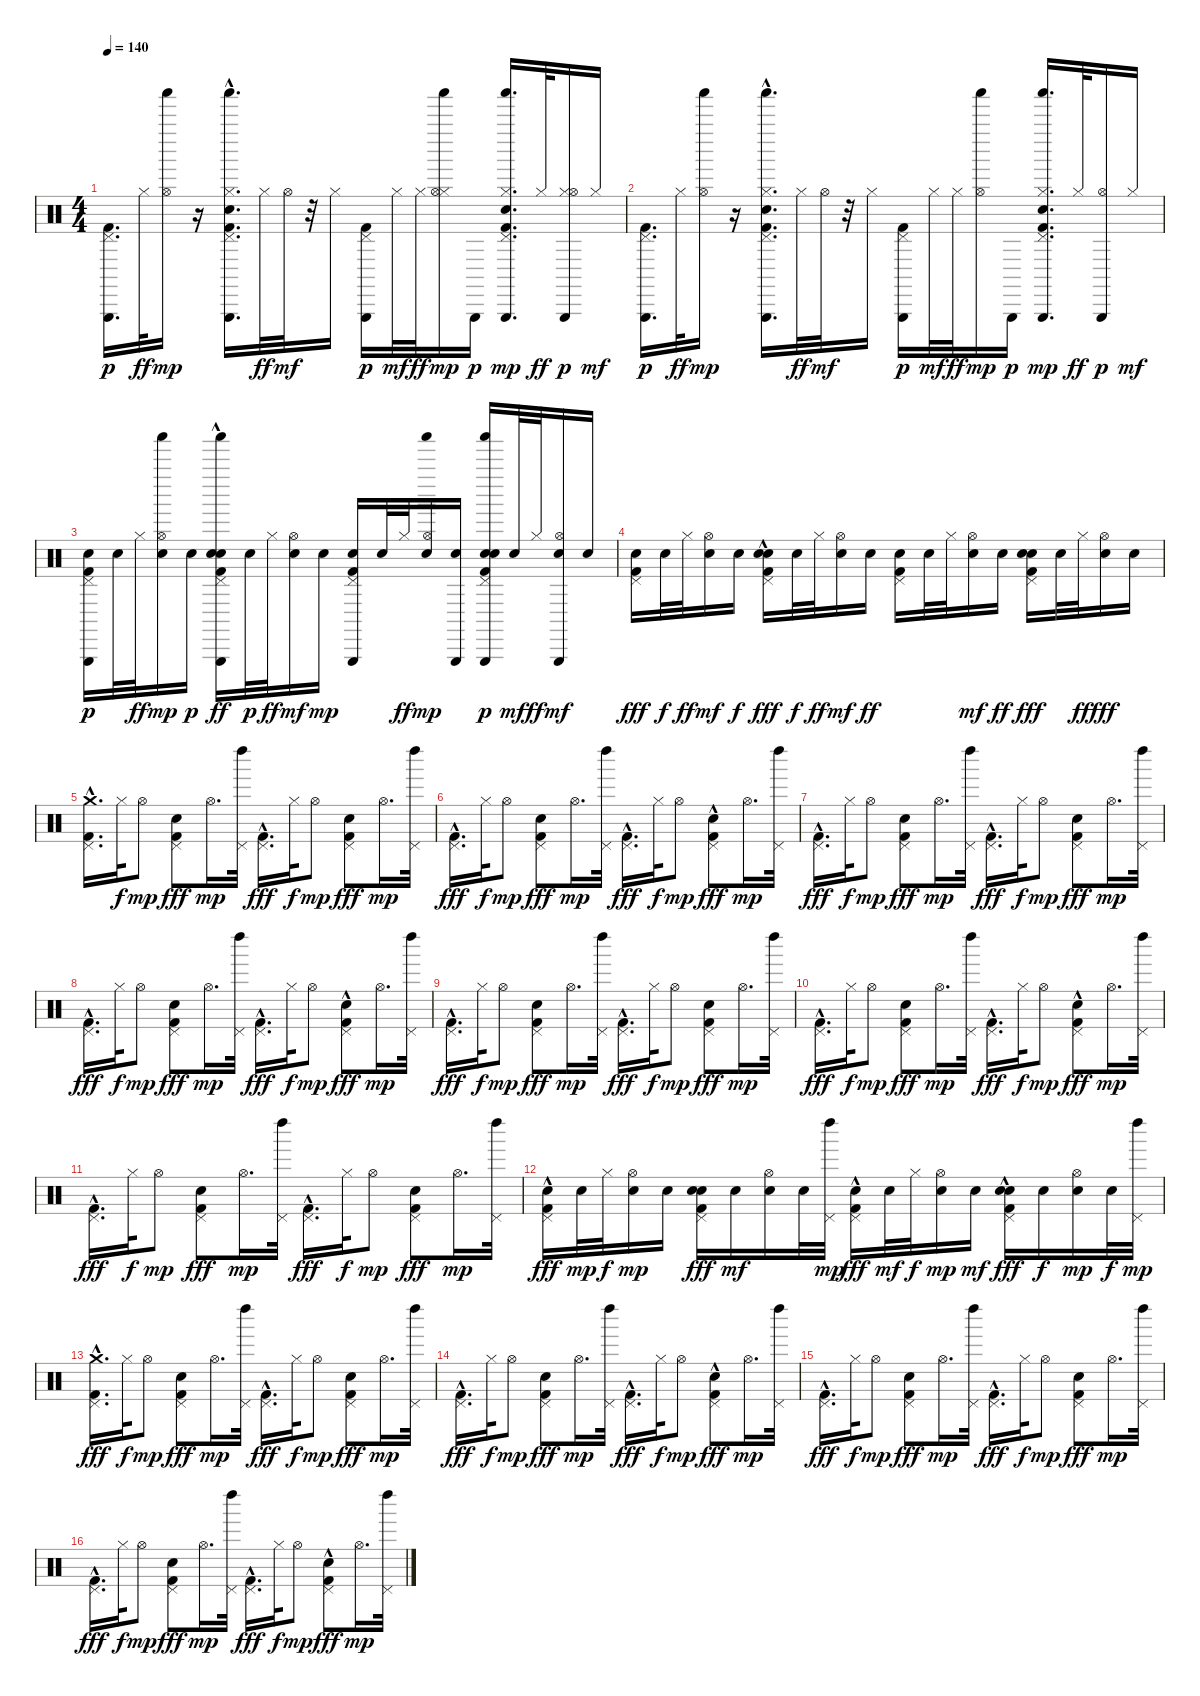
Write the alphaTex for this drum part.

\track "" {instrument percussion}
\staff {score}
\articulation defaults
\ts (4 4)
\tempo 140
\clef neutral
\ks c
("Pedal Hi-Hat (hit)" "Kick (hit) 2" "Triangle (hit)").16{d dy p} "Hi-Hat (closed)".32{dy ff} ("Hi-Hat (open)" "Shaker (hit)").16{dy mp} r.16 ("Pedal Hi-Hat (hit)" "Kick (hit) 2" "Hi-Hat (closed)" "Hand Clap (hit)"{hac} "Triangle (hit)" "Shaker (hit)").16{d} "Hi-Hat (closed)".32{dy ff} "Hi-Hat (open)".32{dy mf} r.32 "Hi-Hat (closed)".16 ("Pedal Hi-Hat (hit)" "Kick (hit) 2" "Triangle (hit)").16{dy p} "Hi-Hat (closed)".32{dy mf} "Hi-Hat (closed)".32{dy ff} ("Hi-Hat (closed)" "Hi-Hat (open)" "Shaker (hit)").16{dy mp} "Triangle (hit)".16{dy p} ("Pedal Hi-Hat (hit)" "Hand Clap (hit)" "Hi-Hat (closed)" "Kick (hit) 2" "Triangle (hit)" "Shaker (hit)").16{d dy mp} "Hi-Hat (closed)".32{dy ff} ("Hi-Hat (closed)" "Hi-Hat (open)" "Triangle (hit)").16{dy p} "Hi-Hat (closed)".16{dy mf} |
("Pedal Hi-Hat (hit)" "Kick (hit) 2" "Triangle (hit)").16{d dy p} "Hi-Hat (closed)".32{dy ff} ("Hi-Hat (open)" "Shaker (hit)").16{dy mp} r.16 ("Pedal Hi-Hat (hit)" "Hi-Hat (closed)" "Hand Clap (hit)"{hac} "Kick (hit) 2" "Triangle (hit)" "Shaker (hit)").16{d} "Hi-Hat (closed)".32{dy ff} "Hi-Hat (open)".32{dy mf} r.32 "Hi-Hat (closed)".16 ("Pedal Hi-Hat (hit)" "Kick (hit) 2" "Triangle (hit)").16{dy p} "Hi-Hat (closed)".32{dy mf} "Hi-Hat (closed)".32{dy ff} ("Hi-Hat (open)" "Shaker (hit)").16{dy mp} "Triangle (hit)".16{dy p} ("Hand Clap (hit)" "Pedal Hi-Hat (hit)" "Hi-Hat (closed)" "Kick (hit) 2" "Triangle (hit)" "Shaker (hit)").16{d dy mp} "Hi-Hat (closed)".32{dy ff} ("Hi-Hat (open)" "Triangle (hit)").16{dy p} "Hi-Hat (closed)".16{dy mf} |
("Triangle (hit)" "Kick (hit) 2" "Pedal Hi-Hat (hit)" "Snare (hit) 2").16{dy p} "Snare (hit) 2".32 "Hi-Hat (closed)".32{dy ff} ("Snare (hit) 2" "Hi-Hat (open)" "Shaker (hit)").16{dy mp} "Snare (hit) 2".16{dy p} ("Hand Clap (hit)"{hac} "Kick (hit) 2" "Shaker (hit)" "Triangle (hit)" "Snare (hit) 2" "Pedal Hi-Hat (hit)").16{dy ff} "Snare (hit) 2".32{dy p} "Hi-Hat (closed)".32{dy ff} ("Snare (hit) 2" "Hi-Hat (open)").16{dy mf} "Snare (hit) 2".16{dy mp} ("Triangle (hit)" "Kick (hit) 2" "Pedal Hi-Hat (hit)" "Snare (hit) 2").16 "Snare (hit) 2".32 "Hi-Hat (closed)".32{dy ff} ("Snare (hit) 2" "Hi-Hat (open)" "Shaker (hit)").16{dy mp} ("Triangle (hit)" "Snare (hit) 2").16 ("Hand Clap (hit)" "Kick (hit) 2" "Snare (hit) 2" "Shaker (hit)" "Pedal Hi-Hat (hit)" "Triangle (hit)").16{dy p} "Snare (hit) 2".32{dy mf} "Hi-Hat (closed)".32{dy ff} ("Snare (hit) 2" "Triangle (hit)" "Hi-Hat (open)").16{dy mf} "Snare (hit) 2".16 |
("Snare (hit) 2" "Pedal Hi-Hat (hit)" "Kick (hit) 2").16{dy fff} "Snare (hit) 2".32{dy f} "Hi-Hat (closed)".32{dy ff} ("Hi-Hat (open)" "Snare (hit) 2").16{dy mf} "Snare (hit) 2".16{dy f} ("Pedal Hi-Hat (hit)" "Hand Clap (hit)"{hac} "Kick (hit) 2" "Snare (hit) 2").16{dy fff} "Snare (hit) 2".32{dy f} "Hi-Hat (closed)".32{dy ff} ("Snare (hit) 2" "Hi-Hat (open)").16{dy mf} "Snare (hit) 2".16{dy ff} ("Pedal Hi-Hat (hit)" "Kick (hit) 2" "Snare (hit) 2").16 "Snare (hit) 2".32 "Hi-Hat (closed)".32 ("Snare (hit) 2" "Hi-Hat (open)").16{dy mf} "Snare (hit) 2".16{dy ff} ("Hand Clap (hit)" "Pedal Hi-Hat (hit)" "Snare (hit) 2" "Kick (hit) 2").16{dy fff} "Snare (hit) 2".32 "Hi-Hat (closed)".32{dy ff} ("Hi-Hat (open)" "Snare (hit) 2").16{dy fff} "Snare (hit) 2".16 |
("Crash medium (hit)" "Pedal Hi-Hat (hit)"{hac} "Kick (hit) 2").16{d} "Hi-Hat (closed)".32{dy f} "Hi-Hat (open)".8{dy mp} ("Pedal Hi-Hat (hit)" "Hand Clap (hit)" "Kick (hit) 2").8{dy fff} "Hi-Hat (open)".16{d dy mp} ("Left Maraca (hit)" "Pedal Hi-Hat (hit)").32 ("Kick (hit) 2" "Pedal Hi-Hat (hit)"{hac}).16{d dy fff} "Hi-Hat (closed)".32{dy f} "Hi-Hat (open)".8{dy mp} ("Pedal Hi-Hat (hit)" "Hand Clap (hit)" "Kick (hit) 2").8{dy fff} "Hi-Hat (open)".16{d dy mp} ("Pedal Hi-Hat (hit)" "Left Maraca (hit)").32 |
("Kick (hit) 2" "Pedal Hi-Hat (hit)"{hac}).16{d dy fff} "Hi-Hat (closed)".32{dy f} "Hi-Hat (open)".8{dy mp} ("Pedal Hi-Hat (hit)" "Hand Clap (hit)" "Kick (hit) 2").8{dy fff} "Hi-Hat (open)".16{d dy mp} ("Left Maraca (hit)" "Pedal Hi-Hat (hit)").32 ("Pedal Hi-Hat (hit)"{hac} "Kick (hit) 2").16{d dy fff} "Hi-Hat (closed)".32{dy f} "Hi-Hat (open)".8{dy mp} ("Pedal Hi-Hat (hit)" "Hand Clap (hit)"{hac} "Kick (hit) 2").8{dy fff} "Hi-Hat (open)".16{d dy mp} ("Left Maraca (hit)" "Pedal Hi-Hat (hit)").32 |
("Kick (hit) 2" "Pedal Hi-Hat (hit)"{hac}).16{d dy fff} "Hi-Hat (closed)".32{dy f} "Hi-Hat (open)".8{dy mp} ("Pedal Hi-Hat (hit)" "Hand Clap (hit)" "Kick (hit) 2").8{dy fff} "Hi-Hat (open)".16{d dy mp} ("Pedal Hi-Hat (hit)" "Left Maraca (hit)").32 ("Kick (hit) 2" "Pedal Hi-Hat (hit)"{hac}).16{d dy fff} "Hi-Hat (closed)".32{dy f} "Hi-Hat (open)".8{dy mp} ("Pedal Hi-Hat (hit)" "Hand Clap (hit)" "Kick (hit) 2").8{dy fff} "Hi-Hat (open)".16{d dy mp} ("Pedal Hi-Hat (hit)" "Left Maraca (hit)").32 |
("Pedal Hi-Hat (hit)"{hac} "Kick (hit) 2").16{d dy fff} "Hi-Hat (closed)".32{dy f} "Hi-Hat (open)".8{dy mp} ("Pedal Hi-Hat (hit)" "Hand Clap (hit)" "Kick (hit) 2").8{dy fff} "Hi-Hat (open)".16{d dy mp} ("Left Maraca (hit)" "Pedal Hi-Hat (hit)").32 ("Pedal Hi-Hat (hit)"{hac} "Kick (hit) 2").16{d dy fff} "Hi-Hat (closed)".32{dy f} "Hi-Hat (open)".8{dy mp} ("Pedal Hi-Hat (hit)" "Kick (hit) 2" "Hand Clap (hit)"{hac}).8{dy fff} "Hi-Hat (open)".16{d dy mp} ("Pedal Hi-Hat (hit)" "Left Maraca (hit)").32 |
("Pedal Hi-Hat (hit)"{hac} "Kick (hit) 2").16{d dy fff} "Hi-Hat (closed)".32{dy f} "Hi-Hat (open)".8{dy mp} ("Kick (hit) 2" "Hand Clap (hit)" "Pedal Hi-Hat (hit)").8{dy fff} "Hi-Hat (open)".16{d dy mp} ("Pedal Hi-Hat (hit)" "Left Maraca (hit)").32 ("Pedal Hi-Hat (hit)"{hac} "Kick (hit) 2").16{d dy fff} "Hi-Hat (closed)".32{dy f} "Hi-Hat (open)".8{dy mp} ("Hand Clap (hit)" "Pedal Hi-Hat (hit)" "Kick (hit) 2").8{dy fff} "Hi-Hat (open)".16{d dy mp} ("Left Maraca (hit)" "Pedal Hi-Hat (hit)").32 |
("Pedal Hi-Hat (hit)"{hac} "Kick (hit) 2").16{d dy fff} "Hi-Hat (closed)".32{dy f} "Hi-Hat (open)".8{dy mp} ("Pedal Hi-Hat (hit)" "Kick (hit) 2" "Hand Clap (hit)").8{dy fff} "Hi-Hat (open)".16{d dy mp} ("Left Maraca (hit)" "Pedal Hi-Hat (hit)").32 ("Pedal Hi-Hat (hit)"{hac} "Kick (hit) 2").16{d dy fff} "Hi-Hat (closed)".32{dy f} "Hi-Hat (open)".8{dy mp} ("Kick (hit) 2" "Pedal Hi-Hat (hit)" "Hand Clap (hit)"{hac}).8{dy fff} "Hi-Hat (open)".16{d dy mp} ("Left Maraca (hit)" "Pedal Hi-Hat (hit)").32 |
("Pedal Hi-Hat (hit)"{hac} "Kick (hit) 2").16{d dy fff} "Hi-Hat (closed)".32{dy f} "Hi-Hat (open)".8{dy mp} ("Kick (hit) 2" "Hand Clap (hit)" "Pedal Hi-Hat (hit)").8{dy fff} "Hi-Hat (open)".16{d dy mp} ("Left Maraca (hit)" "Pedal Hi-Hat (hit)").32 ("Pedal Hi-Hat (hit)"{hac} "Kick (hit) 2").16{d dy fff} "Hi-Hat (closed)".32{dy f} "Hi-Hat (open)".8{dy mp} ("Kick (hit) 2" "Pedal Hi-Hat (hit)" "Hand Clap (hit)").8{dy fff} "Hi-Hat (open)".16{d dy mp} ("Left Maraca (hit)" "Pedal Hi-Hat (hit)").32 |
("Electric Snare (hit)" "Pedal Hi-Hat (hit)"{hac} "Kick (hit) 2").16{dy fff} "Electric Snare (hit)".32{dy mp} "Hi-Hat (closed)".32{dy f} ("Hi-Hat (open)" "Electric Snare (hit)").16{dy mp} "Electric Snare (hit)".16 ("Electric Snare (hit)" "Pedal Hi-Hat (hit)" "Hand Clap (hit)" "Kick (hit) 2").16{dy fff} "Electric Snare (hit)".16{dy mf} ("Hi-Hat (open)" "Electric Snare (hit)").16 "Electric Snare (hit)".32 ("Left Maraca (hit)" "Pedal Hi-Hat (hit)").32{dy mp} ("Electric Snare (hit)" "Pedal Hi-Hat (hit)"{hac} "Kick (hit) 2").16{dy fff} "Electric Snare (hit)".32{dy mf} "Hi-Hat (closed)".32{dy f} ("Electric Snare (hit)" "Hi-Hat (open)").16{dy mp} "Electric Snare (hit)".16{dy mf} ("Electric Snare (hit)" "Pedal Hi-Hat (hit)" "Hand Clap (hit)"{hac} "Kick (hit) 2").16{dy fff} "Electric Snare (hit)".16{dy f} ("Electric Snare (hit)" "Hi-Hat (open)").16{dy mp} "Electric Snare (hit)".32{dy f} ("Left Maraca (hit)" "Pedal Hi-Hat (hit)").32{dy mp} |
("Pedal Hi-Hat (hit)"{hac} "Kick (hit) 2" "Crash medium (hit)").16{d dy fff} "Hi-Hat (closed)".32{dy f} "Hi-Hat (open)".8{dy mp} ("Kick (hit) 2" "Pedal Hi-Hat (hit)" "Hand Clap (hit)").8{dy fff} "Hi-Hat (open)".16{d dy mp} ("Pedal Hi-Hat (hit)" "Left Maraca (hit)").32 ("Pedal Hi-Hat (hit)"{hac} "Kick (hit) 2").16{d dy fff} "Hi-Hat (closed)".32{dy f} "Hi-Hat (open)".8{dy mp} ("Pedal Hi-Hat (hit)" "Hand Clap (hit)" "Kick (hit) 2").8{dy fff} "Hi-Hat (open)".16{d dy mp} ("Pedal Hi-Hat (hit)" "Left Maraca (hit)").32 |
("Kick (hit) 2" "Pedal Hi-Hat (hit)"{hac}).16{d dy fff} "Hi-Hat (closed)".32{dy f} "Hi-Hat (open)".8{dy mp} ("Kick (hit) 2" "Pedal Hi-Hat (hit)" "Hand Clap (hit)").8{dy fff} "Hi-Hat (open)".16{d dy mp} ("Pedal Hi-Hat (hit)" "Left Maraca (hit)").32 ("Kick (hit) 2" "Pedal Hi-Hat (hit)"{hac}).16{d dy fff} "Hi-Hat (closed)".32{dy f} "Hi-Hat (open)".8{dy mp} ("Pedal Hi-Hat (hit)" "Hand Clap (hit)"{hac} "Kick (hit) 2").8{dy fff} "Hi-Hat (open)".16{d dy mp} ("Left Maraca (hit)" "Pedal Hi-Hat (hit)").32 |
("Pedal Hi-Hat (hit)"{hac} "Kick (hit) 2").16{d dy fff} "Hi-Hat (closed)".32{dy f} "Hi-Hat (open)".8{dy mp} ("Kick (hit) 2" "Pedal Hi-Hat (hit)" "Hand Clap (hit)").8{dy fff} "Hi-Hat (open)".16{d dy mp} ("Left Maraca (hit)" "Pedal Hi-Hat (hit)").32 ("Pedal Hi-Hat (hit)"{hac} "Kick (hit) 2").16{d dy fff} "Hi-Hat (closed)".32{dy f} "Hi-Hat (open)".8{dy mp} ("Pedal Hi-Hat (hit)" "Kick (hit) 2" "Hand Clap (hit)").8{dy fff} "Hi-Hat (open)".16{d dy mp} ("Pedal Hi-Hat (hit)" "Left Maraca (hit)").32 |
("Kick (hit) 2" "Pedal Hi-Hat (hit)"{hac}).16{d dy fff} "Hi-Hat (closed)".32{dy f} "Hi-Hat (open)".8{dy mp} ("Hand Clap (hit)" "Kick (hit) 2" "Pedal Hi-Hat (hit)").8{dy fff} "Hi-Hat (open)".16{d dy mp} ("Pedal Hi-Hat (hit)" "Left Maraca (hit)").32 ("Pedal Hi-Hat (hit)"{hac} "Kick (hit) 2").16{d dy fff} "Hi-Hat (closed)".32{dy f} "Hi-Hat (open)".8{dy mp} ("Hand Clap (hit)"{hac} "Kick (hit) 2" "Pedal Hi-Hat (hit)").8{dy fff} "Hi-Hat (open)".16{d dy mp} ("Left Maraca (hit)" "Pedal Hi-Hat (hit)").32
